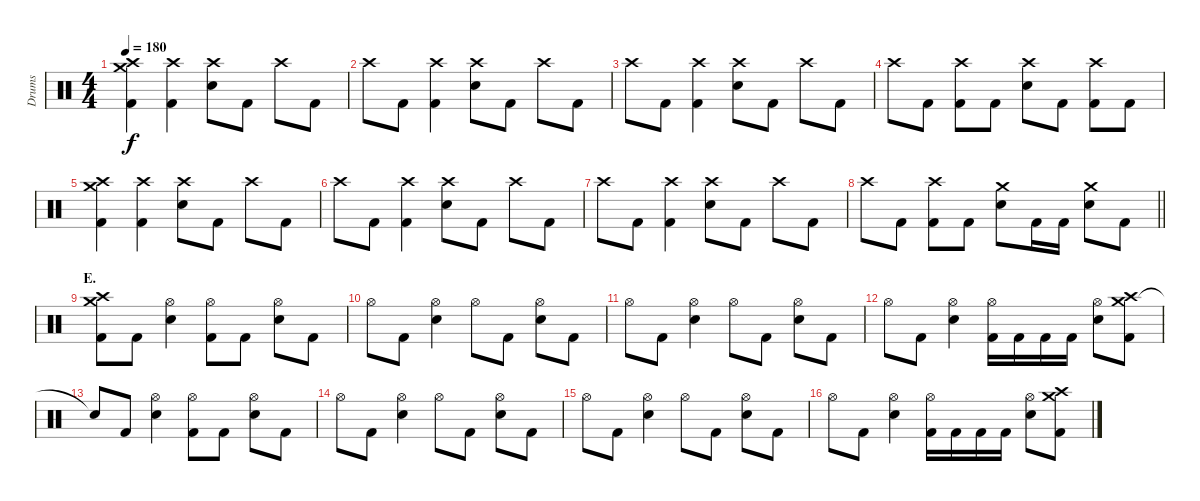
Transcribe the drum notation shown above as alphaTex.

\track ("Drums" "Drums") {instrument percussion}
\staff {score}
\articulation defaults
\ts (4 4)
\tempo 180
\clef neutral
\ks c
("Crash medium (hit)" "Crash high (hit)" "Kick (hit) 2").4{dy f} ("Crash high (hit)" "Kick (hit) 2").4 ("Crash high (hit)" "Electric Snare (hit)").8 "Kick (hit) 2".8 "Crash high (hit)".8 "Kick (hit) 2".8 |
"Crash high (hit)".8 "Kick (hit) 2".8 ("Crash high (hit)" "Kick (hit) 2").4 ("Crash high (hit)" "Electric Snare (hit)").8 "Kick (hit) 2".8 "Crash high (hit)".8 "Kick (hit) 2".8 |
"Crash high (hit)".8 "Kick (hit) 2".8 ("Crash high (hit)" "Kick (hit) 2").4 ("Crash high (hit)" "Electric Snare (hit)").8 "Kick (hit) 2".8 "Crash high (hit)".8 "Kick (hit) 2".8 |
"Crash high (hit)".8 "Kick (hit) 2".8 ("Crash high (hit)" "Kick (hit) 2").8 "Kick (hit) 2".8 ("Crash high (hit)" "Electric Snare (hit)").8 "Kick (hit) 2".8 ("Crash high (hit)" "Kick (hit) 2").8 "Kick (hit) 2".8 |
("Crash medium (hit)" "Crash high (hit)" "Kick (hit) 2").4 ("Crash high (hit)" "Kick (hit) 2").4 ("Crash high (hit)" "Electric Snare (hit)").8 "Kick (hit) 2".8 "Crash high (hit)".8 "Kick (hit) 2".8 |
"Crash high (hit)".8 "Kick (hit) 2".8 ("Crash high (hit)" "Kick (hit) 2").4 ("Crash high (hit)" "Electric Snare (hit)").8 "Kick (hit) 2".8 "Crash high (hit)".8 "Kick (hit) 2".8 |
"Crash high (hit)".8 "Kick (hit) 2".8 ("Crash high (hit)" "Kick (hit) 2").4 ("Crash high (hit)" "Electric Snare (hit)").8 "Kick (hit) 2".8 "Crash high (hit)".8 "Kick (hit) 2".8 |
\barLineRight lightlight "Crash high (hit)".8 "Kick (hit) 2".8
("Crash high (hit)" "Kick (hit) 2").8 "Kick (hit) 2".8 ("Crash medium (hit)" "Electric Snare (hit)").8 "Kick (hit) 2".16 "Kick (hit) 2".16 ("Crash medium (hit)" "Electric Snare (hit)").8 "Kick (hit) 2".8 |
\section ("" "E.")
("Crash medium (hit)" "Crash high (hit)" "Kick (hit) 2").8 "Kick (hit) 2".8 ("Hi-Hat (open)" "Electric Snare (hit)").4 ("Hi-Hat (open)" "Kick (hit) 2").8 "Kick (hit) 2".8 ("Hi-Hat (open)" "Electric Snare (hit)").8 "Kick (hit) 2".8 |
"Hi-Hat (open)".8 "Kick (hit) 2".8 ("Hi-Hat (open)" "Electric Snare (hit)").4 "Hi-Hat (open)".8 "Kick (hit) 2".8 ("Hi-Hat (open)" "Electric Snare (hit)").8 "Kick (hit) 2".8 |
"Hi-Hat (open)".8 "Kick (hit) 2".8 ("Hi-Hat (open)" "Electric Snare (hit)").4 "Hi-Hat (open)".8 "Kick (hit) 2".8 ("Hi-Hat (open)" "Electric Snare (hit)").8 "Kick (hit) 2".8 |
"Hi-Hat (open)".8 "Kick (hit) 2".8 ("Hi-Hat (open)" "Electric Snare (hit)").4 ("Hi-Hat (open)" "Kick (hit) 2").16 "Kick (hit) 2".16 "Kick (hit) 2".16 "Kick (hit) 2".16 ("Hi-Hat (open)" "Electric Snare (hit)").8 ("Crash medium (hit)" "Crash high (hit)" "Kick (hit) 2").8 |
"Snare (hit)"{t}.8 "Kick (hit) 2".8 ("Hi-Hat (open)" "Electric Snare (hit)").4 ("Hi-Hat (open)" "Kick (hit) 2").8 "Kick (hit) 2".8 ("Hi-Hat (open)" "Electric Snare (hit)").8 "Kick (hit) 2".8 |
"Hi-Hat (open)".8 "Kick (hit) 2".8 ("Hi-Hat (open)" "Electric Snare (hit)").4 "Hi-Hat (open)".8 "Kick (hit) 2".8 ("Hi-Hat (open)" "Electric Snare (hit)").8 "Kick (hit) 2".8 |
"Hi-Hat (open)".8 "Kick (hit) 2".8 ("Hi-Hat (open)" "Electric Snare (hit)").4 "Hi-Hat (open)".8 "Kick (hit) 2".8 ("Hi-Hat (open)" "Electric Snare (hit)").8 "Kick (hit) 2".8 |
"Hi-Hat (open)".8 "Kick (hit) 2".8 ("Hi-Hat (open)" "Electric Snare (hit)").4 ("Hi-Hat (open)" "Kick (hit) 2").16 "Kick (hit) 2".16 "Kick (hit) 2".16 "Kick (hit) 2".16 ("Hi-Hat (open)" "Electric Snare (hit)").8 ("Crash medium (hit)" "Crash high (hit)" "Kick (hit) 2").8
